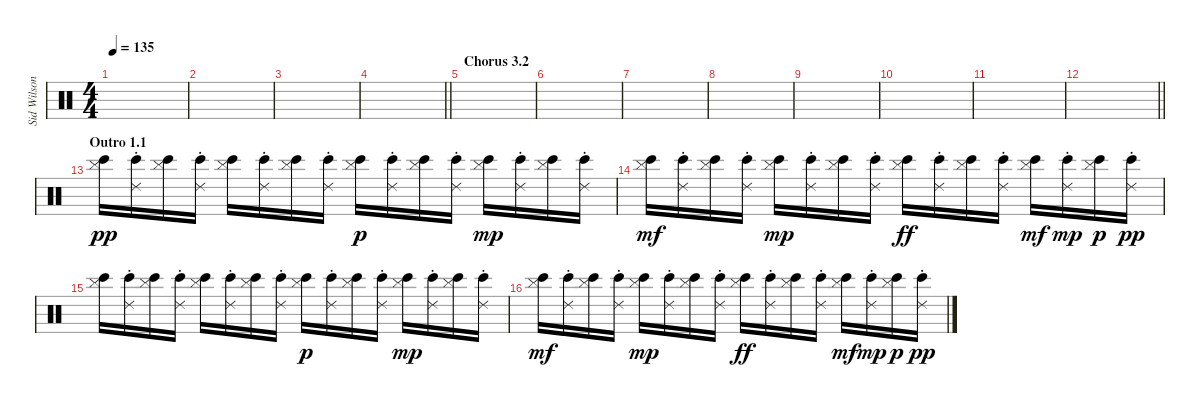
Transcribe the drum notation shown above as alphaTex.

\track ("Sid Wilson" "Sid Wilson") {instrument percussion}
\staff {score}
\articulation defaults
\ts (4 4)
\tempo 135
\clef neutral
\ks c
|
|
|
\barLineRight lightlight
|
\section ("" "Chorus 3.2")
|
|
|
|
|
|
|
\barLineRight lightlight
|
\section ("" "Outro 1.1")
("Bongo High (hit)" "Cymbal (hit)").16{dy pp} ("Bongo High (hit)" "Ride (choke) 2").16 ("Bongo High (hit)" "Cymbal (hit)").16 ("Bongo High (hit)" "Ride (choke) 2").16 ("Bongo High (hit)" "Cymbal (hit)").16 ("Bongo High (hit)" "Ride (choke) 2").16 ("Bongo High (hit)" "Cymbal (hit)").16 ("Bongo High (hit)" "Ride (choke) 2").16 ("Bongo High (hit)" "Cymbal (hit)").16{dy p} ("Bongo High (hit)" "Ride (choke) 2").16 ("Bongo High (hit)" "Cymbal (hit)").16 ("Bongo High (hit)" "Ride (choke) 2").16 ("Bongo High (hit)" "Cymbal (hit)").16{dy mp} ("Bongo High (hit)" "Ride (choke) 2").16 ("Bongo High (hit)" "Cymbal (hit)").16 ("Bongo High (hit)" "Ride (choke) 2").16 |
("Bongo High (hit)" "Cymbal (hit)").16{dy mf} ("Bongo High (hit)" "Ride (choke) 2").16 ("Bongo High (hit)" "Cymbal (hit)").16 ("Bongo High (hit)" "Ride (choke) 2").16 ("Bongo High (hit)" "Cymbal (hit)").16{dy mp} ("Bongo High (hit)" "Ride (choke) 2").16 ("Bongo High (hit)" "Cymbal (hit)").16 ("Bongo High (hit)" "Ride (choke) 2").16 ("Bongo High (hit)" "Cymbal (hit)").16{dy ff} ("Bongo High (hit)" "Ride (choke) 2").16 ("Bongo High (hit)" "Cymbal (hit)").16 ("Bongo High (hit)" "Ride (choke) 2").16 ("Bongo High (hit)" "Cymbal (hit)").16{dy mf} ("Bongo High (hit)" "Ride (choke) 2").16{dy mp} ("Bongo High (hit)" "Cymbal (hit)").16{dy p} ("Bongo High (hit)" "Ride (choke) 2").16{dy pp} |
("Bongo High (hit)" "Cymbal (hit)").16 ("Bongo High (hit)" "Ride (choke) 2").16 ("Bongo High (hit)" "Cymbal (hit)").16 ("Bongo High (hit)" "Ride (choke) 2").16 ("Bongo High (hit)" "Cymbal (hit)").16 ("Bongo High (hit)" "Ride (choke) 2").16 ("Bongo High (hit)" "Cymbal (hit)").16 ("Bongo High (hit)" "Ride (choke) 2").16 ("Bongo High (hit)" "Cymbal (hit)").16{dy p} ("Bongo High (hit)" "Ride (choke) 2").16 ("Bongo High (hit)" "Cymbal (hit)").16 ("Bongo High (hit)" "Ride (choke) 2").16 ("Bongo High (hit)" "Cymbal (hit)").16{dy mp} ("Bongo High (hit)" "Ride (choke) 2").16 ("Bongo High (hit)" "Cymbal (hit)").16 ("Bongo High (hit)" "Ride (choke) 2").16 |
("Bongo High (hit)" "Cymbal (hit)").16{dy mf} ("Bongo High (hit)" "Ride (choke) 2").16 ("Bongo High (hit)" "Cymbal (hit)").16 ("Bongo High (hit)" "Ride (choke) 2").16 ("Bongo High (hit)" "Cymbal (hit)").16{dy mp} ("Bongo High (hit)" "Ride (choke) 2").16 ("Bongo High (hit)" "Cymbal (hit)").16 ("Bongo High (hit)" "Ride (choke) 2").16 ("Bongo High (hit)" "Cymbal (hit)").16{dy ff} ("Bongo High (hit)" "Ride (choke) 2").16 ("Bongo High (hit)" "Cymbal (hit)").16 ("Bongo High (hit)" "Ride (choke) 2").16 ("Bongo High (hit)" "Cymbal (hit)").16{dy mf} ("Bongo High (hit)" "Ride (choke) 2").16{dy mp} ("Bongo High (hit)" "Cymbal (hit)").16{dy p} ("Bongo High (hit)" "Ride (choke) 2").16{dy pp}
